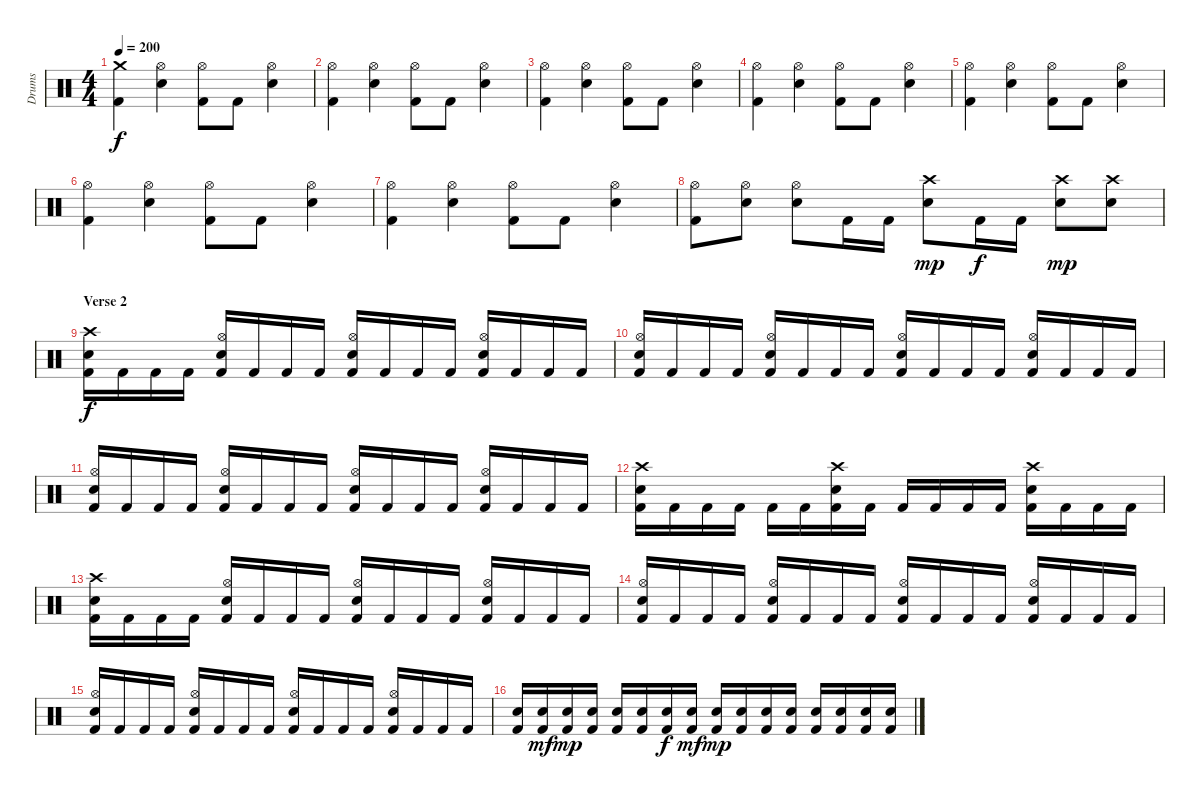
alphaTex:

\track ("Drums" "Drums") {instrument percussion}
\staff {score}
\articulation defaults
\ts (4 4)
\tempo 200
\clef neutral
\ks c
("Crash medium (hit)" "Kick (hit) 2").4{dy f} ("Hi-Hat (open)" "Snare (hit) 2").4 ("Hi-Hat (open)" "Kick (hit) 2").8 "Kick (hit) 2".8 ("Hi-Hat (open)" "Snare (hit) 2").4 |
("Hi-Hat (open)" "Kick (hit) 2").4 ("Hi-Hat (open)" "Snare (hit) 2").4 ("Hi-Hat (open)" "Kick (hit) 2").8 "Kick (hit) 2".8 ("Hi-Hat (open)" "Snare (hit) 2").4 |
("Hi-Hat (open)" "Kick (hit) 2").4 ("Hi-Hat (open)" "Snare (hit) 2").4 ("Hi-Hat (open)" "Kick (hit) 2").8 "Kick (hit) 2".8 ("Hi-Hat (open)" "Snare (hit) 2").4 |
("Hi-Hat (open)" "Kick (hit) 2").4 ("Hi-Hat (open)" "Snare (hit) 2").4 ("Hi-Hat (open)" "Kick (hit) 2").8 "Kick (hit) 2".8 ("Hi-Hat (open)" "Snare (hit) 2").4 |
("Hi-Hat (open)" "Kick (hit) 2").4 ("Hi-Hat (open)" "Snare (hit) 2").4 ("Hi-Hat (open)" "Kick (hit) 2").8 "Kick (hit) 2".8 ("Hi-Hat (open)" "Snare (hit) 2").4 |
("Hi-Hat (open)" "Kick (hit) 2").4 ("Hi-Hat (open)" "Snare (hit) 2").4 ("Hi-Hat (open)" "Kick (hit) 2").8 "Kick (hit) 2".8 ("Hi-Hat (open)" "Snare (hit) 2").4 |
("Hi-Hat (open)" "Kick (hit) 2").4 ("Hi-Hat (open)" "Snare (hit) 2").4 ("Hi-Hat (open)" "Kick (hit) 2").8 "Kick (hit) 2".8 ("Hi-Hat (open)" "Snare (hit) 2").4 |
("Hi-Hat (open)" "Kick (hit) 2").8 ("Hi-Hat (open)" "Snare (hit) 2").8 ("Hi-Hat (open)" "Snare (hit) 2").8 "Kick (hit) 2".16 "Kick (hit) 2".16 ("Crash high (hit)" "Snare (hit) 2").8{dy mp} "Kick (hit) 2".16{dy f} "Kick (hit) 2".16 ("Crash high (hit)" "Snare (hit) 2").8{dy mp} ("Crash high (hit)" "Snare (hit) 2").8 |
\section ("" "Verse 2")
("Crash high (hit)" "Snare (hit) 2" "Kick (hit) 2").16{dy f} "Kick (hit) 2".16 "Kick (hit) 2".16 "Kick (hit) 2".16 ("Hi-Hat (open)" "Snare (hit) 2" "Kick (hit) 2").16 "Kick (hit) 2".16 "Kick (hit) 2".16 "Kick (hit) 2".16 ("Hi-Hat (open)" "Snare (hit) 2" "Kick (hit) 2").16 "Kick (hit) 2".16 "Kick (hit) 2".16 "Kick (hit) 2".16 ("Hi-Hat (open)" "Snare (hit) 2" "Kick (hit) 2").16 "Kick (hit) 2".16 "Kick (hit) 2".16 "Kick (hit) 2".16 |
("Hi-Hat (open)" "Snare (hit) 2" "Kick (hit) 2").16 "Kick (hit) 2".16 "Kick (hit) 2".16 "Kick (hit) 2".16 ("Hi-Hat (open)" "Snare (hit) 2" "Kick (hit) 2").16 "Kick (hit) 2".16 "Kick (hit) 2".16 "Kick (hit) 2".16 ("Hi-Hat (open)" "Snare (hit) 2" "Kick (hit) 2").16 "Kick (hit) 2".16 "Kick (hit) 2".16 "Kick (hit) 2".16 ("Hi-Hat (open)" "Snare (hit) 2" "Kick (hit) 2").16 "Kick (hit) 2".16 "Kick (hit) 2".16 "Kick (hit) 2".16 |
("Hi-Hat (open)" "Snare (hit) 2" "Kick (hit) 2").16 "Kick (hit) 2".16 "Kick (hit) 2".16 "Kick (hit) 2".16 ("Hi-Hat (open)" "Snare (hit) 2" "Kick (hit) 2").16 "Kick (hit) 2".16 "Kick (hit) 2".16 "Kick (hit) 2".16 ("Hi-Hat (open)" "Snare (hit) 2" "Kick (hit) 2").16 "Kick (hit) 2".16 "Kick (hit) 2".16 "Kick (hit) 2".16 ("Hi-Hat (open)" "Snare (hit) 2" "Kick (hit) 2").16 "Kick (hit) 2".16 "Kick (hit) 2".16 "Kick (hit) 2".16 |
("Crash high (hit)" "Snare (hit) 2" "Kick (hit) 2").16 "Kick (hit) 2".16 "Kick (hit) 2".16 "Kick (hit) 2".16 "Kick (hit) 2".16 "Kick (hit) 2".16 ("Crash high (hit)" "Snare (hit) 2" "Kick (hit) 2").16 "Kick (hit) 2".16 "Kick (hit) 2".16 "Kick (hit) 2".16 "Kick (hit) 2".16 "Kick (hit) 2".16 ("Crash high (hit)" "Snare (hit) 2" "Kick (hit) 2").16 "Kick (hit) 2".16 "Kick (hit) 2".16 "Kick (hit) 2".16 |
("Crash high (hit)" "Snare (hit) 2" "Kick (hit) 2").16 "Kick (hit) 2".16 "Kick (hit) 2".16 "Kick (hit) 2".16 ("Hi-Hat (open)" "Snare (hit) 2" "Kick (hit) 2").16 "Kick (hit) 2".16 "Kick (hit) 2".16 "Kick (hit) 2".16 ("Hi-Hat (open)" "Snare (hit) 2" "Kick (hit) 2").16 "Kick (hit) 2".16 "Kick (hit) 2".16 "Kick (hit) 2".16 ("Hi-Hat (open)" "Snare (hit) 2" "Kick (hit) 2").16 "Kick (hit) 2".16 "Kick (hit) 2".16 "Kick (hit) 2".16 |
("Hi-Hat (open)" "Snare (hit) 2" "Kick (hit) 2").16 "Kick (hit) 2".16 "Kick (hit) 2".16 "Kick (hit) 2".16 ("Hi-Hat (open)" "Snare (hit) 2" "Kick (hit) 2").16 "Kick (hit) 2".16 "Kick (hit) 2".16 "Kick (hit) 2".16 ("Hi-Hat (open)" "Snare (hit) 2" "Kick (hit) 2").16 "Kick (hit) 2".16 "Kick (hit) 2".16 "Kick (hit) 2".16 ("Hi-Hat (open)" "Snare (hit) 2" "Kick (hit) 2").16 "Kick (hit) 2".16 "Kick (hit) 2".16 "Kick (hit) 2".16 |
("Hi-Hat (open)" "Snare (hit) 2" "Kick (hit) 2").16 "Kick (hit) 2".16 "Kick (hit) 2".16 "Kick (hit) 2".16 ("Hi-Hat (open)" "Snare (hit) 2" "Kick (hit) 2").16 "Kick (hit) 2".16 "Kick (hit) 2".16 "Kick (hit) 2".16 ("Hi-Hat (open)" "Snare (hit) 2" "Kick (hit) 2").16 "Kick (hit) 2".16 "Kick (hit) 2".16 "Kick (hit) 2".16 ("Hi-Hat (open)" "Snare (hit) 2" "Kick (hit) 2").16 "Kick (hit) 2".16 "Kick (hit) 2".16 "Kick (hit) 2".16 |
("Snare (hit) 2" "Kick (hit) 2").16 ("Snare (hit) 2" "Kick (hit) 2").16{dy mf} ("Snare (hit) 2" "Kick (hit) 2").16{dy mp} ("Snare (hit) 2" "Kick (hit) 2").16 ("Snare (hit) 2" "Kick (hit) 2").16 ("Snare (hit) 2" "Kick (hit) 2").16 ("Snare (hit) 2" "Kick (hit) 2").16{dy f} ("Snare (hit) 2" "Kick (hit) 2").16{dy mf} ("Snare (hit) 2" "Kick (hit) 2").16{dy mp} ("Snare (hit) 2" "Kick (hit) 2").16 ("Snare (hit) 2" "Kick (hit) 2").16 ("Snare (hit) 2" "Kick (hit) 2").16 ("Snare (hit) 2" "Kick (hit) 2").16 ("Snare (hit) 2" "Kick (hit) 2").16 ("Snare (hit) 2" "Kick (hit) 2").16 ("Snare (hit) 2" "Kick (hit) 2").16
